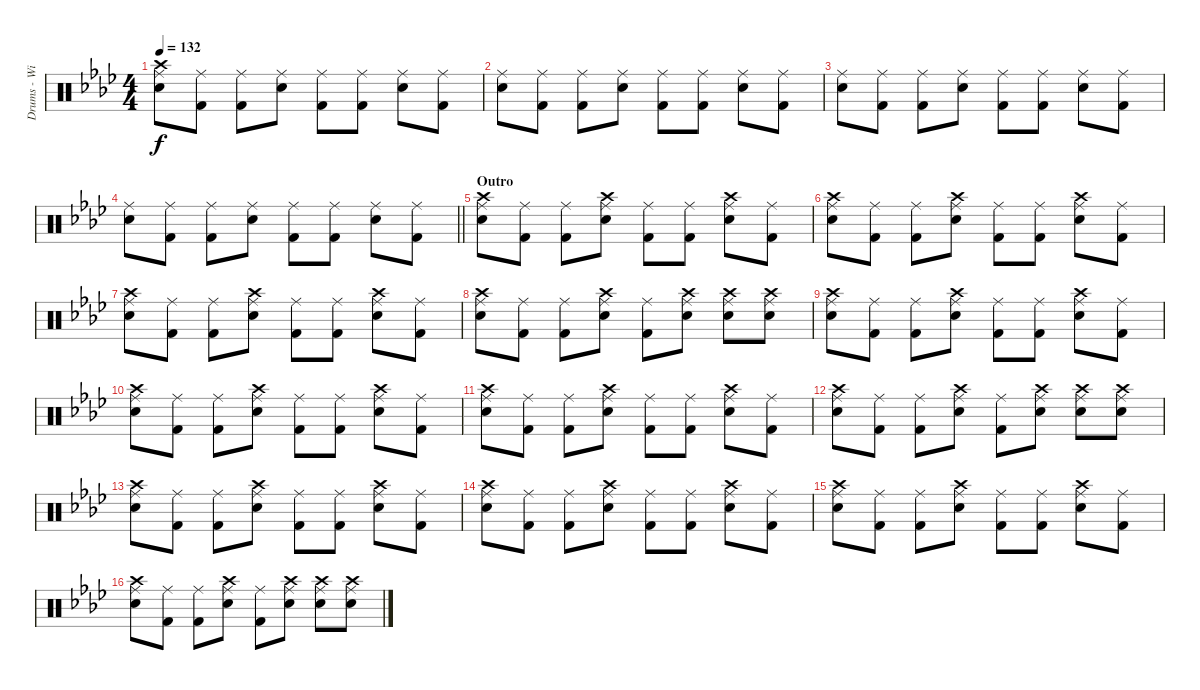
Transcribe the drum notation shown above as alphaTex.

\track ("Drums - Will" "Drums - Wi") {instrument percussion}
\staff {score}
\articulation defaults
\ts (4 4)
\tempo 132
\clef neutral
\ks ab
("Crash high (hit)" "Ride (middle)" "Electric Snare (hit)").8{dy f} ("Ride (middle)" "Kick (hit) 2").8 ("Ride (middle)" "Kick (hit) 2").8 ("Ride (middle)" "Electric Snare (hit)").8 ("Ride (middle)" "Kick (hit) 2").8 ("Ride (middle)" "Kick (hit) 2").8 ("Ride (middle)" "Electric Snare (hit)").8 ("Ride (middle)" "Kick (hit) 2").8 |
("Ride (middle)" "Electric Snare (hit)").8 ("Ride (middle)" "Kick (hit) 2").8 ("Ride (middle)" "Kick (hit) 2").8 ("Ride (middle)" "Electric Snare (hit)").8 ("Ride (middle)" "Kick (hit) 2").8 ("Ride (middle)" "Kick (hit) 2").8 ("Ride (middle)" "Electric Snare (hit)").8 ("Ride (middle)" "Kick (hit) 2").8 |
("Ride (middle)" "Electric Snare (hit)").8 ("Ride (middle)" "Kick (hit) 2").8 ("Ride (middle)" "Kick (hit) 2").8 ("Ride (middle)" "Electric Snare (hit)").8 ("Ride (middle)" "Kick (hit) 2").8 ("Ride (middle)" "Kick (hit) 2").8 ("Ride (middle)" "Electric Snare (hit)").8 ("Ride (middle)" "Kick (hit) 2").8 |
\barLineRight lightlight
("Ride (middle)" "Electric Snare (hit)").8 ("Ride (middle)" "Kick (hit) 2").8 ("Ride (middle)" "Kick (hit) 2").8 ("Ride (middle)" "Electric Snare (hit)").8 ("Ride (middle)" "Kick (hit) 2").8 ("Ride (middle)" "Kick (hit) 2").8 ("Ride (middle)" "Electric Snare (hit)").8 ("Ride (middle)" "Kick (hit) 2").8 |
\section ("" "Outro")
("Crash high (hit)" "Ride (middle)" "Electric Snare (hit)").8 ("Ride (middle)" "Kick (hit) 2").8 ("Ride (middle)" "Kick (hit) 2").8 ("Crash high (hit)" "Ride (middle)" "Electric Snare (hit)").8 ("Ride (middle)" "Kick (hit) 2").8 ("Ride (middle)" "Kick (hit) 2").8 ("Crash high (hit)" "Ride (middle)" "Electric Snare (hit)").8 ("Ride (middle)" "Kick (hit) 2").8 |
("Crash high (hit)" "Ride (middle)" "Electric Snare (hit)").8 ("Ride (middle)" "Kick (hit) 2").8 ("Ride (middle)" "Kick (hit) 2").8 ("Crash high (hit)" "Ride (middle)" "Electric Snare (hit)").8 ("Ride (middle)" "Kick (hit) 2").8 ("Ride (middle)" "Kick (hit) 2").8 ("Crash high (hit)" "Ride (middle)" "Electric Snare (hit)").8 ("Ride (middle)" "Kick (hit) 2").8 |
("Crash high (hit)" "Ride (middle)" "Electric Snare (hit)").8 ("Ride (middle)" "Kick (hit) 2").8 ("Ride (middle)" "Kick (hit) 2").8 ("Crash high (hit)" "Ride (middle)" "Electric Snare (hit)").8 ("Ride (middle)" "Kick (hit) 2").8 ("Ride (middle)" "Kick (hit) 2").8 ("Crash high (hit)" "Ride (middle)" "Electric Snare (hit)").8 ("Ride (middle)" "Kick (hit) 2").8 |
("Crash high (hit)" "Ride (middle)" "Electric Snare (hit)").8 ("Ride (middle)" "Kick (hit) 2").8 ("Ride (middle)" "Kick (hit) 2").8 ("Crash high (hit)" "Ride (middle)" "Electric Snare (hit)").8 ("Ride (middle)" "Kick (hit) 2").8 ("Crash high (hit)" "Ride (middle)" "Electric Snare (hit)").8 ("Crash high (hit)" "Ride (middle)" "Electric Snare (hit)").8 ("Crash high (hit)" "Ride (middle)" "Electric Snare (hit)").8 |
("Crash high (hit)" "Ride (middle)" "Electric Snare (hit)").8 ("Ride (middle)" "Kick (hit) 2").8 ("Ride (middle)" "Kick (hit) 2").8 ("Crash high (hit)" "Ride (middle)" "Electric Snare (hit)").8 ("Ride (middle)" "Kick (hit) 2").8 ("Ride (middle)" "Kick (hit) 2").8 ("Crash high (hit)" "Ride (middle)" "Electric Snare (hit)").8 ("Ride (middle)" "Kick (hit) 2").8 |
("Crash high (hit)" "Ride (middle)" "Electric Snare (hit)").8 ("Ride (middle)" "Kick (hit) 2").8 ("Ride (middle)" "Kick (hit) 2").8 ("Crash high (hit)" "Ride (middle)" "Electric Snare (hit)").8 ("Ride (middle)" "Kick (hit) 2").8 ("Ride (middle)" "Kick (hit) 2").8 ("Crash high (hit)" "Ride (middle)" "Electric Snare (hit)").8 ("Ride (middle)" "Kick (hit) 2").8 |
("Crash high (hit)" "Ride (middle)" "Electric Snare (hit)").8 ("Ride (middle)" "Kick (hit) 2").8 ("Ride (middle)" "Kick (hit) 2").8 ("Crash high (hit)" "Ride (middle)" "Electric Snare (hit)").8 ("Ride (middle)" "Kick (hit) 2").8 ("Ride (middle)" "Kick (hit) 2").8 ("Crash high (hit)" "Ride (middle)" "Electric Snare (hit)").8 ("Ride (middle)" "Kick (hit) 2").8 |
("Crash high (hit)" "Ride (middle)" "Electric Snare (hit)").8 ("Ride (middle)" "Kick (hit) 2").8 ("Ride (middle)" "Kick (hit) 2").8 ("Crash high (hit)" "Ride (middle)" "Electric Snare (hit)").8 ("Ride (middle)" "Kick (hit) 2").8 ("Crash high (hit)" "Ride (middle)" "Electric Snare (hit)").8 ("Crash high (hit)" "Ride (middle)" "Electric Snare (hit)").8 ("Crash high (hit)" "Ride (middle)" "Electric Snare (hit)").8 |
("Crash high (hit)" "Ride (middle)" "Electric Snare (hit)").8 ("Ride (middle)" "Kick (hit) 2").8 ("Ride (middle)" "Kick (hit) 2").8 ("Crash high (hit)" "Ride (middle)" "Electric Snare (hit)").8 ("Ride (middle)" "Kick (hit) 2").8 ("Ride (middle)" "Kick (hit) 2").8 ("Crash high (hit)" "Ride (middle)" "Electric Snare (hit)").8 ("Ride (middle)" "Kick (hit) 2").8 |
("Crash high (hit)" "Ride (middle)" "Electric Snare (hit)").8 ("Ride (middle)" "Kick (hit) 2").8 ("Ride (middle)" "Kick (hit) 2").8 ("Crash high (hit)" "Ride (middle)" "Electric Snare (hit)").8 ("Ride (middle)" "Kick (hit) 2").8 ("Ride (middle)" "Kick (hit) 2").8 ("Crash high (hit)" "Ride (middle)" "Electric Snare (hit)").8 ("Ride (middle)" "Kick (hit) 2").8 |
("Crash high (hit)" "Ride (middle)" "Electric Snare (hit)").8 ("Ride (middle)" "Kick (hit) 2").8 ("Ride (middle)" "Kick (hit) 2").8 ("Crash high (hit)" "Ride (middle)" "Electric Snare (hit)").8 ("Ride (middle)" "Kick (hit) 2").8 ("Ride (middle)" "Kick (hit) 2").8 ("Crash high (hit)" "Ride (middle)" "Electric Snare (hit)").8 ("Ride (middle)" "Kick (hit) 2").8 |
("Crash high (hit)" "Ride (middle)" "Electric Snare (hit)").8 ("Ride (middle)" "Kick (hit) 2").8 ("Ride (middle)" "Kick (hit) 2").8 ("Crash high (hit)" "Ride (middle)" "Electric Snare (hit)").8 ("Ride (middle)" "Kick (hit) 2").8 ("Crash high (hit)" "Ride (middle)" "Electric Snare (hit)").8 ("Crash high (hit)" "Ride (middle)" "Electric Snare (hit)").8 ("Crash high (hit)" "Ride (middle)" "Electric Snare (hit)").8
